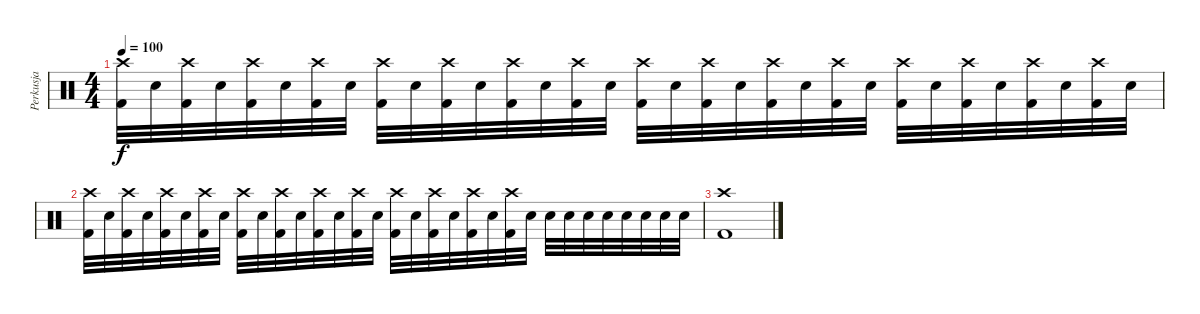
\track ("Perkusja" "Perkusja") {instrument percussion}
\staff {score}
\articulation defaults
\ts (4 4)
\tempo 100
\clef neutral
\ks c
("Crash high (hit)" "Kick (hit) 2").32{dy f} "Snare (hit) 2".32 ("Crash high (hit)" "Kick (hit) 2").32 "Snare (hit) 2".32 ("Crash high (hit)" "Kick (hit) 2").32 "Snare (hit) 2".32 ("Crash high (hit)" "Kick (hit) 2").32 "Snare (hit) 2".32 ("Crash high (hit)" "Kick (hit) 2").32 "Snare (hit) 2".32 ("Crash high (hit)" "Kick (hit) 2").32 "Snare (hit) 2".32 ("Crash high (hit)" "Kick (hit) 2").32 "Snare (hit) 2".32 ("Crash high (hit)" "Kick (hit) 2").32 "Snare (hit) 2".32 ("Crash high (hit)" "Kick (hit) 2").32 "Snare (hit) 2".32 ("Crash high (hit)" "Kick (hit) 2").32 "Snare (hit) 2".32 ("Crash high (hit)" "Kick (hit) 2").32 "Snare (hit) 2".32 ("Crash high (hit)" "Kick (hit) 2").32 "Snare (hit) 2".32 ("Crash high (hit)" "Kick (hit) 2").32 "Snare (hit) 2".32 ("Crash high (hit)" "Kick (hit) 2").32 "Snare (hit) 2".32 ("Crash high (hit)" "Kick (hit) 2").32 "Snare (hit) 2".32 ("Crash high (hit)" "Kick (hit) 2").32 "Snare (hit) 2".32 |
("Crash high (hit)" "Kick (hit) 2").32 "Snare (hit) 2".32 ("Crash high (hit)" "Kick (hit) 2").32 "Snare (hit) 2".32 ("Crash high (hit)" "Kick (hit) 2").32 "Snare (hit) 2".32 ("Crash high (hit)" "Kick (hit) 2").32 "Snare (hit) 2".32 ("Crash high (hit)" "Kick (hit) 2").32 "Snare (hit) 2".32 ("Crash high (hit)" "Kick (hit) 2").32 "Snare (hit) 2".32 ("Crash high (hit)" "Kick (hit) 2").32 "Snare (hit) 2".32 ("Crash high (hit)" "Kick (hit) 2").32 "Snare (hit) 2".32 ("Crash high (hit)" "Kick (hit) 2").32 "Snare (hit) 2".32 ("Crash high (hit)" "Kick (hit) 2").32 "Snare (hit) 2".32 ("Crash high (hit)" "Kick (hit) 2").32 "Snare (hit) 2".32 ("Crash high (hit)" "Kick (hit) 2").32 "Snare (hit) 2".32 "Snare (hit) 2".32 "Snare (hit) 2".32 "Snare (hit) 2".32 "Snare (hit) 2".32 "Snare (hit) 2".32 "Snare (hit) 2".32 "Snare (hit) 2".32 "Snare (hit) 2".32 |
("Crash high (hit)" "Kick (hit) 2").1
